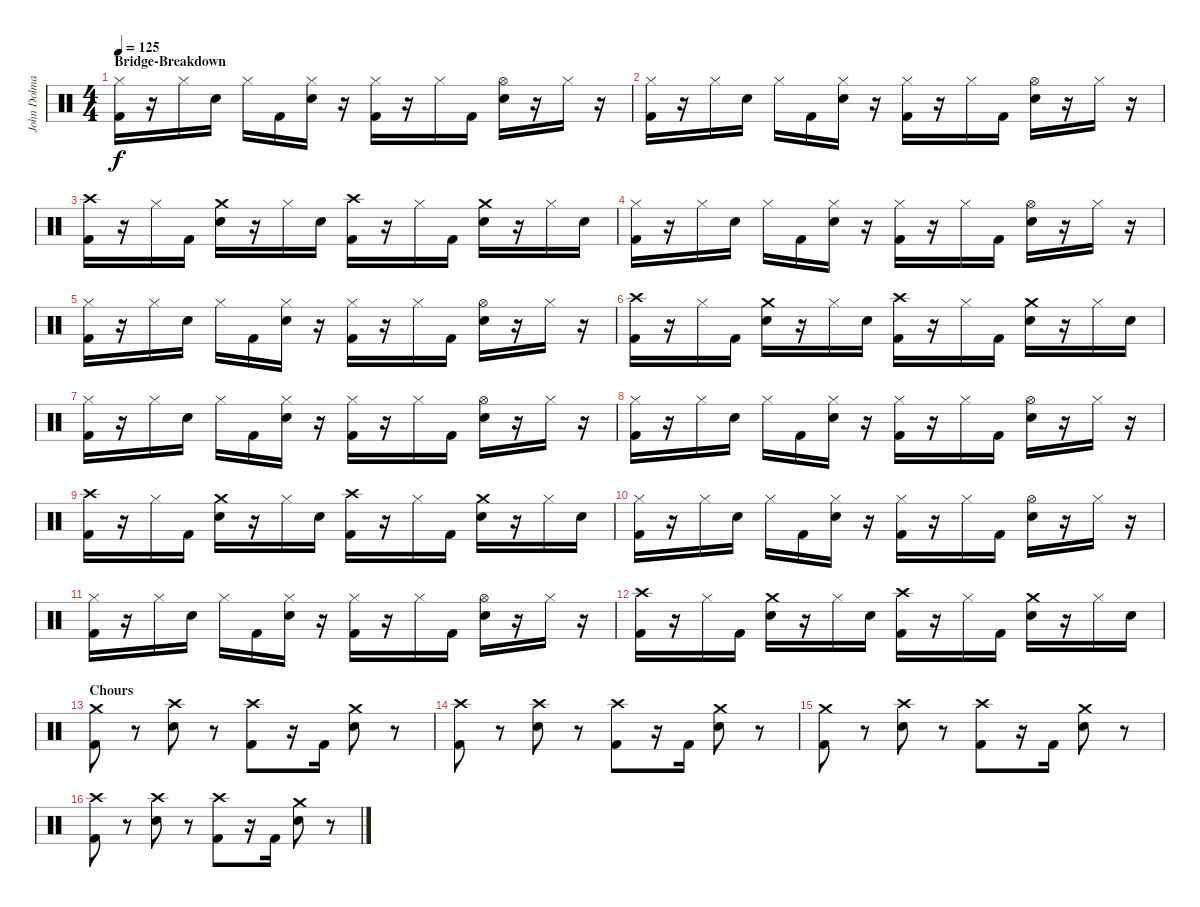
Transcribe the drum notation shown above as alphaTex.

\track ("John Dolmayan" "John Dolma") {instrument percussion}
\staff {score}
\articulation defaults
\ts (4 4)
\section ("" "Bridge-Breakdown")
\tempo 125
\clef neutral
\ks c
("Hi-Hat (closed)" "Kick (hit) 2").16{dy f} r.16 "Hi-Hat (closed)".16 "Electric Snare (hit)".16 "Hi-Hat (closed)".16 "Kick (hit) 2".16 ("Hi-Hat (closed)" "Electric Snare (hit)").16 r.16 ("Hi-Hat (closed)" "Kick (hit) 2").16 r.16 "Hi-Hat (closed)".16 "Kick (hit) 2".16 ("Hi-Hat (open)" "Electric Snare (hit)").16 r.16 "Hi-Hat (closed)".16 r.16 |
("Hi-Hat (closed)" "Kick (hit) 2").16 r.16 "Hi-Hat (closed)".16 "Electric Snare (hit)".16 "Hi-Hat (closed)".16 "Kick (hit) 2".16 ("Hi-Hat (closed)" "Electric Snare (hit)").16 r.16 ("Hi-Hat (closed)" "Kick (hit) 2").16 r.16 "Hi-Hat (closed)".16 "Kick (hit) 2".16 ("Hi-Hat (open)" "Electric Snare (hit)").16 r.16 "Hi-Hat (closed)".16 r.16 |
("Crash high (hit)" "Kick (hit) 2").16 r.16 "Hi-Hat (closed)".16 "Kick (hit) 2".16 ("Crash medium (hit)" "Electric Snare (hit)").16 r.16 "Hi-Hat (closed)".16 "Electric Snare (hit)".16 ("Crash high (hit)" "Kick (hit) 2").16 r.16 "Hi-Hat (closed)".16 "Kick (hit) 2".16 ("Crash medium (hit)" "Electric Snare (hit)").16 r.16 "Hi-Hat (closed)".16 "Electric Snare (hit)".16 |
("Hi-Hat (closed)" "Kick (hit) 2").16 r.16 "Hi-Hat (closed)".16 "Electric Snare (hit)".16 "Hi-Hat (closed)".16 "Kick (hit) 2".16 ("Hi-Hat (closed)" "Electric Snare (hit)").16 r.16 ("Hi-Hat (closed)" "Kick (hit) 2").16 r.16 "Hi-Hat (closed)".16 "Kick (hit) 2".16 ("Hi-Hat (open)" "Electric Snare (hit)").16 r.16 "Hi-Hat (closed)".16 r.16 |
("Hi-Hat (closed)" "Kick (hit) 2").16 r.16 "Hi-Hat (closed)".16 "Electric Snare (hit)".16 "Hi-Hat (closed)".16 "Kick (hit) 2".16 ("Hi-Hat (closed)" "Electric Snare (hit)").16 r.16 ("Hi-Hat (closed)" "Kick (hit) 2").16 r.16 "Hi-Hat (closed)".16 "Kick (hit) 2".16 ("Hi-Hat (open)" "Electric Snare (hit)").16 r.16 "Hi-Hat (closed)".16 r.16 |
("Crash high (hit)" "Kick (hit) 2").16 r.16 "Hi-Hat (closed)".16 "Kick (hit) 2".16 ("Crash medium (hit)" "Electric Snare (hit)").16 r.16 "Hi-Hat (closed)".16 "Electric Snare (hit)".16 ("Crash high (hit)" "Kick (hit) 2").16 r.16 "Hi-Hat (closed)".16 "Kick (hit) 2".16 ("Crash medium (hit)" "Electric Snare (hit)").16 r.16 "Hi-Hat (closed)".16 "Electric Snare (hit)".16 |
("Hi-Hat (closed)" "Kick (hit) 2").16 r.16 "Hi-Hat (closed)".16 "Electric Snare (hit)".16 "Hi-Hat (closed)".16 "Kick (hit) 2".16 ("Hi-Hat (closed)" "Electric Snare (hit)").16 r.16 ("Hi-Hat (closed)" "Kick (hit) 2").16 r.16 "Hi-Hat (closed)".16 "Kick (hit) 2".16 ("Hi-Hat (open)" "Electric Snare (hit)").16 r.16 "Hi-Hat (closed)".16 r.16 |
("Hi-Hat (closed)" "Kick (hit) 2").16 r.16 "Hi-Hat (closed)".16 "Electric Snare (hit)".16 "Hi-Hat (closed)".16 "Kick (hit) 2".16 ("Hi-Hat (closed)" "Electric Snare (hit)").16 r.16 ("Hi-Hat (closed)" "Kick (hit) 2").16 r.16 "Hi-Hat (closed)".16 "Kick (hit) 2".16 ("Hi-Hat (open)" "Electric Snare (hit)").16 r.16 "Hi-Hat (closed)".16 r.16 |
("Crash high (hit)" "Kick (hit) 2").16 r.16 "Hi-Hat (closed)".16 "Kick (hit) 2".16 ("Crash medium (hit)" "Electric Snare (hit)").16 r.16 "Hi-Hat (closed)".16 "Electric Snare (hit)".16 ("Crash high (hit)" "Kick (hit) 2").16 r.16 "Hi-Hat (closed)".16 "Kick (hit) 2".16 ("Crash medium (hit)" "Electric Snare (hit)").16 r.16 "Hi-Hat (closed)".16 "Electric Snare (hit)".16 |
("Hi-Hat (closed)" "Kick (hit) 2").16 r.16 "Hi-Hat (closed)".16 "Electric Snare (hit)".16 "Hi-Hat (closed)".16 "Kick (hit) 2".16 ("Hi-Hat (closed)" "Electric Snare (hit)").16 r.16 ("Hi-Hat (closed)" "Kick (hit) 2").16 r.16 "Hi-Hat (closed)".16 "Kick (hit) 2".16 ("Hi-Hat (open)" "Electric Snare (hit)").16 r.16 "Hi-Hat (closed)".16 r.16 |
("Hi-Hat (closed)" "Kick (hit) 2").16 r.16 "Hi-Hat (closed)".16 "Electric Snare (hit)".16 "Hi-Hat (closed)".16 "Kick (hit) 2".16 ("Hi-Hat (closed)" "Electric Snare (hit)").16 r.16 ("Hi-Hat (closed)" "Kick (hit) 2").16 r.16 "Hi-Hat (closed)".16 "Kick (hit) 2".16 ("Hi-Hat (open)" "Electric Snare (hit)").16 r.16 "Hi-Hat (closed)".16 r.16 |
("Crash high (hit)" "Kick (hit) 2").16 r.16 "Hi-Hat (closed)".16 "Kick (hit) 2".16 ("Crash medium (hit)" "Electric Snare (hit)").16 r.16 "Hi-Hat (closed)".16 "Electric Snare (hit)".16 ("Crash high (hit)" "Kick (hit) 2").16 r.16 "Hi-Hat (closed)".16 "Kick (hit) 2".16 ("Crash medium (hit)" "Electric Snare (hit)").16 r.16 "Hi-Hat (closed)".16 "Electric Snare (hit)".16 |
\section ("" "Chours")
("Crash medium (hit)" "Kick (hit) 2").8 r.8 ("Crash high (hit)" "Electric Snare (hit)").8 r.8 ("Crash high (hit)" "Kick (hit) 2").8 r.16 "Kick (hit) 2".16 ("Crash medium (hit)" "Electric Snare (hit)").8 r.8 |
("Crash high (hit)" "Kick (hit) 2").8 r.8 ("Crash high (hit)" "Electric Snare (hit)").8 r.8 ("Crash high (hit)" "Kick (hit) 2").8 r.16 "Kick (hit) 2".16 ("Crash medium (hit)" "Electric Snare (hit)").8 r.8 |
("Crash medium (hit)" "Kick (hit) 2").8 r.8 ("Crash high (hit)" "Electric Snare (hit)").8 r.8 ("Crash high (hit)" "Kick (hit) 2").8 r.16 "Kick (hit) 2".16 ("Crash medium (hit)" "Electric Snare (hit)").8 r.8 |
("Crash high (hit)" "Kick (hit) 2").8 r.8 ("Crash high (hit)" "Electric Snare (hit)").8 r.8 ("Crash high (hit)" "Kick (hit) 2").8 r.16 "Kick (hit) 2".16 ("Crash medium (hit)" "Electric Snare (hit)").8 r.8
